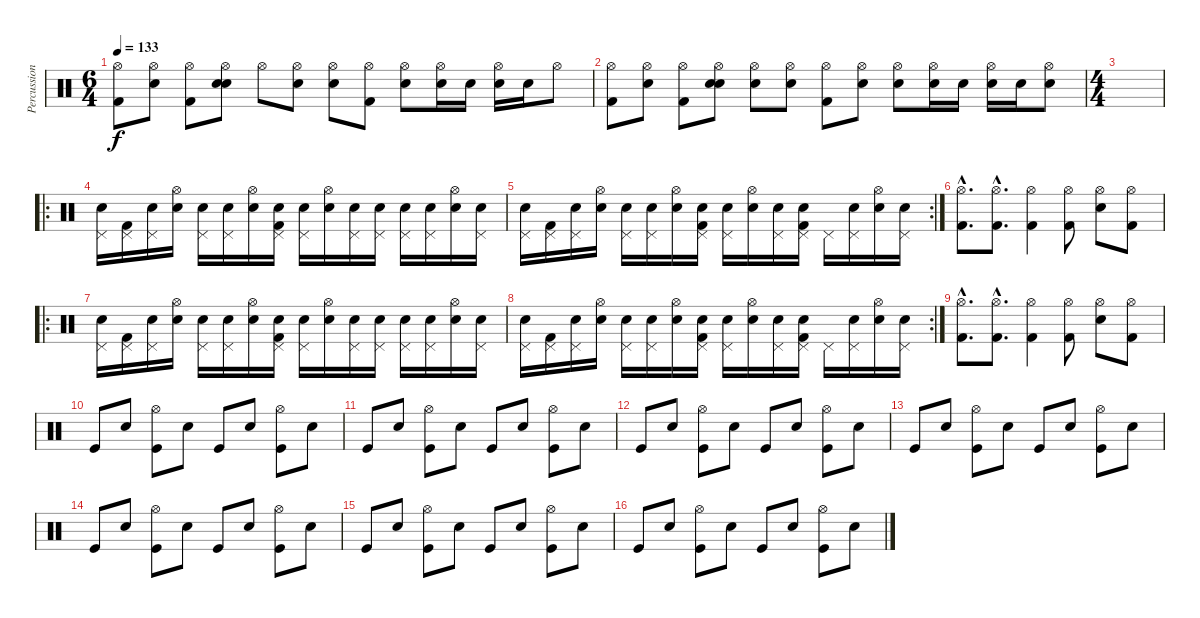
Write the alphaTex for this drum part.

\track ("Percussion" "Percussion") {instrument percussion}
\staff {score}
\articulation defaults
\ts (6 4)
\tempo 133
\clef neutral
\ks c
("Hi-Hat (open)" "Kick (hit) 2").8{dy f} ("Hi-Hat (open)" "Snare (hit)"{x}).8 ("Hi-Hat (open)" "Kick (hit) 2").8 ("Hi-Hat (open)" "Snare (hit) 2" "Snare (hit)"{x}).8 "Hi-Hat (open)".8 ("Hi-Hat (open)" "Snare (hit) 2").8 ("Hi-Hat (open)" "Snare (hit) 2").8 ("Hi-Hat (open)" "Kick (hit) 2").8 ("Hi-Hat (open)" "Snare (hit) 2").8 ("Hi-Hat (open)" "Snare (hit) 2").16 "Snare (hit) 2".16 ("Hi-Hat (open)" "Snare (hit) 2").16 "Snare (hit) 2".16 "Hi-Hat (open)".8 |
("Hi-Hat (open)" "Kick (hit) 2").8 ("Hi-Hat (open)" "Snare (hit)"{x}).8 ("Hi-Hat (open)" "Kick (hit) 2").8 ("Hi-Hat (open)" "Snare (hit) 2" "Snare (hit)"{x}).8 ("Hi-Hat (open)" "Snare (hit)"{x}).8 ("Hi-Hat (open)" "Snare (hit) 2").8 ("Hi-Hat (open)" "Kick (hit) 2").8 ("Hi-Hat (open)" "Snare (hit) 2").8 ("Hi-Hat (open)" "Snare (hit) 2").8 ("Hi-Hat (open)" "Snare (hit) 2").16 "Snare (hit) 2".16 ("Hi-Hat (open)" "Snare (hit) 2").16 "Snare (hit) 2".16 ("Hi-Hat (open)" "Snare (hit) 2").8 |
\ts (4 4)
|
\ro
("Pedal Hi-Hat (hit)" "Snare (hit) 2").16 ("Pedal Hi-Hat (hit)" "Kick (hit) 2").16 ("Pedal Hi-Hat (hit)" "Snare (hit)"{x}).16 ("Hi-Hat (open)" "Snare (hit) 2").16 ("Pedal Hi-Hat (hit)" "Snare (hit)"{x}).16 ("Pedal Hi-Hat (hit)" "Snare (hit)"{x}).16 ("Hi-Hat (open)" "Snare (hit) 2").16 ("Pedal Hi-Hat (hit)" "Snare (hit)"{x} "Kick (hit) 2").16 ("Pedal Hi-Hat (hit)" "Snare (hit)"{x}).16 ("Hi-Hat (open)" "Snare (hit) 2").16 ("Pedal Hi-Hat (hit)" "Snare (hit)"{x}).16 ("Pedal Hi-Hat (hit)" "Snare (hit)"{x}).16 ("Pedal Hi-Hat (hit)" "Snare (hit) 2").16 ("Pedal Hi-Hat (hit)" "Snare (hit)"{x}).16 ("Hi-Hat (open)" "Snare (hit) 2").16 ("Pedal Hi-Hat (hit)" "Snare (hit)"{x}).16 |
\rc 2
("Pedal Hi-Hat (hit)" "Snare (hit) 2").16 ("Pedal Hi-Hat (hit)" "Kick (hit) 2").16 ("Pedal Hi-Hat (hit)" "Snare (hit)"{x}).16 ("Hi-Hat (open)" "Snare (hit) 2").16 ("Pedal Hi-Hat (hit)" "Snare (hit)"{x}).16 ("Pedal Hi-Hat (hit)" "Snare (hit)"{x}).16 ("Hi-Hat (open)" "Snare (hit) 2").16 ("Pedal Hi-Hat (hit)" "Snare (hit)"{x} "Kick (hit) 2").16 ("Pedal Hi-Hat (hit)" "Snare (hit)"{x}).16 ("Hi-Hat (open)" "Snare (hit) 2").16 ("Pedal Hi-Hat (hit)" "Snare (hit)"{x}).16 ("Pedal Hi-Hat (hit)" "Snare (hit)"{x} "Kick (hit) 2").16 "Pedal Hi-Hat (hit)".16 ("Pedal Hi-Hat (hit)" "Snare (hit)"{x}).16 ("Hi-Hat (open)" "Snare (hit) 2").16 ("Pedal Hi-Hat (hit)" "Snare (hit)"{x}).16 |
("Hi-Hat (open)"{hac} "Kick (hit) 2"{hac}).8{d} ("Hi-Hat (open)"{hac} "Kick (hit) 2"{hac}).8{d} ("Hi-Hat (open)" "Kick (hit) 2").4 ("Hi-Hat (open)" "Kick (hit) 2").8 ("Hi-Hat (open)" "Snare (hit) 2").8 ("Hi-Hat (open)" "Kick (hit) 2").8 |
\ro
("Pedal Hi-Hat (hit)" "Snare (hit) 2").16 ("Pedal Hi-Hat (hit)" "Kick (hit) 2").16 ("Pedal Hi-Hat (hit)" "Snare (hit)"{x}).16 ("Hi-Hat (open)" "Snare (hit) 2").16 ("Pedal Hi-Hat (hit)" "Snare (hit)"{x}).16 ("Pedal Hi-Hat (hit)" "Snare (hit)"{x}).16 ("Hi-Hat (open)" "Snare (hit) 2").16 ("Pedal Hi-Hat (hit)" "Snare (hit)"{x} "Kick (hit) 2").16 ("Pedal Hi-Hat (hit)" "Snare (hit)"{x}).16 ("Hi-Hat (open)" "Snare (hit) 2").16 ("Pedal Hi-Hat (hit)" "Snare (hit)"{x}).16 ("Pedal Hi-Hat (hit)" "Snare (hit)"{x}).16 ("Pedal Hi-Hat (hit)" "Snare (hit) 2").16 ("Pedal Hi-Hat (hit)" "Snare (hit)"{x}).16 ("Hi-Hat (open)" "Snare (hit) 2").16 ("Pedal Hi-Hat (hit)" "Snare (hit)"{x}).16 |
\rc 2
("Pedal Hi-Hat (hit)" "Snare (hit) 2").16 ("Pedal Hi-Hat (hit)" "Kick (hit) 2").16 ("Pedal Hi-Hat (hit)" "Snare (hit)"{x}).16 ("Hi-Hat (open)" "Snare (hit) 2").16 ("Pedal Hi-Hat (hit)" "Snare (hit)"{x}).16 ("Pedal Hi-Hat (hit)" "Snare (hit)"{x}).16 ("Hi-Hat (open)" "Snare (hit) 2").16 ("Pedal Hi-Hat (hit)" "Snare (hit)"{x} "Kick (hit) 2").16 ("Pedal Hi-Hat (hit)" "Snare (hit)"{x}).16 ("Hi-Hat (open)" "Snare (hit) 2").16 ("Pedal Hi-Hat (hit)" "Snare (hit)"{x}).16 ("Pedal Hi-Hat (hit)" "Snare (hit)"{x} "Kick (hit) 2").16 "Pedal Hi-Hat (hit)".16 ("Pedal Hi-Hat (hit)" "Snare (hit)"{x}).16 ("Hi-Hat (open)" "Snare (hit) 2").16 ("Pedal Hi-Hat (hit)" "Snare (hit)"{x}).16 |
("Hi-Hat (open)"{hac} "Kick (hit) 2"{hac}).8{d} ("Hi-Hat (open)"{hac} "Kick (hit) 2"{hac}).8{d} ("Hi-Hat (open)" "Kick (hit) 2").4 ("Hi-Hat (open)" "Kick (hit) 2").8 ("Hi-Hat (open)" "Snare (hit) 2").8 ("Hi-Hat (open)" "Kick (hit) 2").8 |
"Kick (hit)".8 "Snare (hit) 2".8 ("Hi-Hat (open)" "Kick (hit)").8 "Snare (hit)"{x}.8 "Kick (hit)".8 "Snare (hit) 2".8 ("Hi-Hat (open)" "Kick (hit)").8 "Snare (hit)"{x}.8 |
"Kick (hit)".8 "Snare (hit) 2".8 ("Hi-Hat (open)" "Kick (hit)").8 "Snare (hit)"{x}.8 "Kick (hit)".8 "Snare (hit) 2".8 ("Hi-Hat (open)" "Kick (hit)").8 "Snare (hit)"{x}.8 |
"Kick (hit)".8 "Snare (hit) 2".8 ("Hi-Hat (open)" "Kick (hit)").8 "Snare (hit)"{x}.8 "Kick (hit)".8 "Snare (hit) 2".8 ("Hi-Hat (open)" "Kick (hit)").8 "Snare (hit)"{x}.8 |
"Kick (hit)".8 "Snare (hit) 2".8 ("Hi-Hat (open)" "Kick (hit)").8 "Snare (hit)"{x}.8 "Kick (hit)".8 "Snare (hit) 2".8 ("Hi-Hat (open)" "Kick (hit)").8 "Snare (hit)"{x}.8 |
"Kick (hit)".8 "Snare (hit) 2".8 ("Hi-Hat (open)" "Kick (hit)").8 "Snare (hit)"{x}.8 "Kick (hit)".8 "Snare (hit) 2".8 ("Hi-Hat (open)" "Kick (hit)").8 "Snare (hit)"{x}.8 |
"Kick (hit)".8 "Snare (hit) 2".8 ("Hi-Hat (open)" "Kick (hit)").8 "Snare (hit)"{x}.8 "Kick (hit)".8 "Snare (hit) 2".8 ("Hi-Hat (open)" "Kick (hit)").8 "Snare (hit)"{x}.8 |
"Kick (hit)".8 "Snare (hit) 2".8 ("Hi-Hat (open)" "Kick (hit)").8 "Snare (hit)"{x}.8 "Kick (hit)".8 "Snare (hit) 2".8 ("Hi-Hat (open)" "Kick (hit)").8 "Snare (hit)"{x}.8
